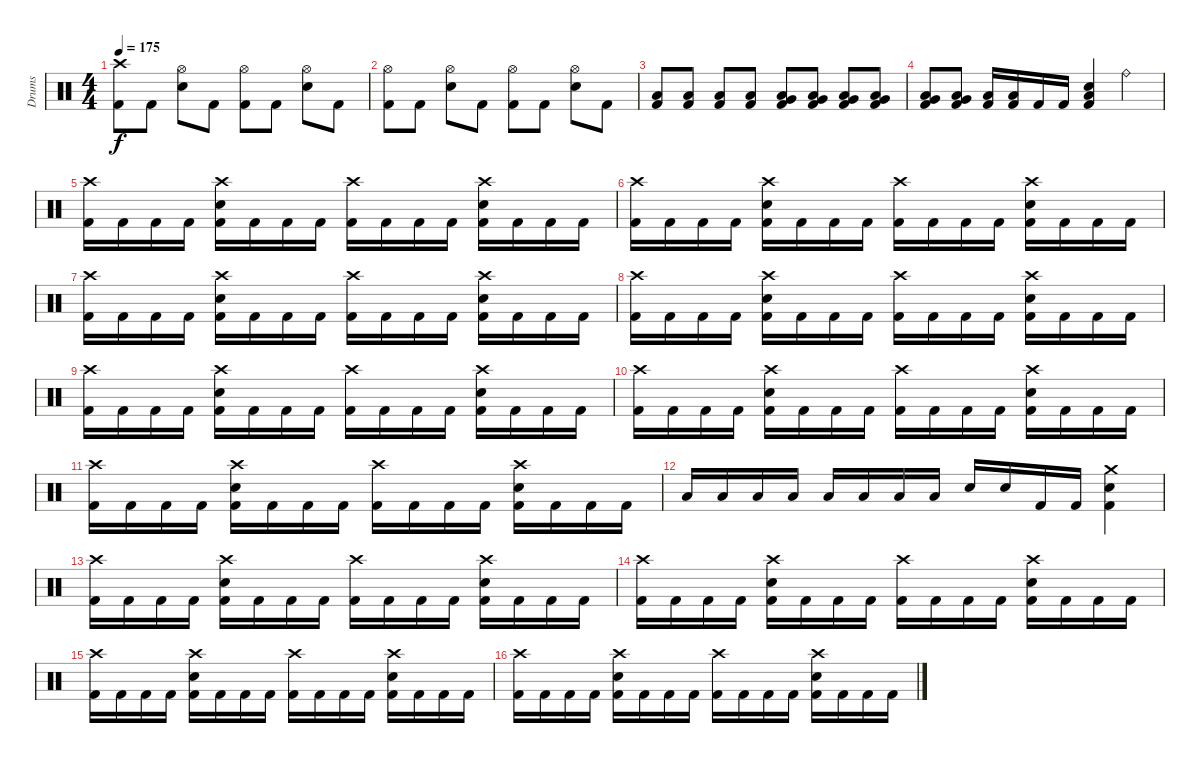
\track ("Drums" "Drums") {instrument percussion}
\staff {score}
\articulation defaults
\ts (4 4)
\tempo 175
\clef neutral
\ks c
("Crash high (hit)" "Kick (hit) 2").8{dy f} "Kick (hit) 2".8 ("Hi-Hat (open)" "Snare (hit) 2").8 "Kick (hit) 2".8 ("Hi-Hat (open)" "Kick (hit) 2").8 "Kick (hit) 2".8 ("Hi-Hat (open)" "Snare (hit) 2").8 "Kick (hit) 2".8 |
("Hi-Hat (open)" "Kick (hit) 2").8 "Kick (hit) 2".8 ("Hi-Hat (open)" "Snare (hit) 2").8 "Kick (hit) 2".8 ("Hi-Hat (open)" "Kick (hit) 2").8 "Kick (hit) 2".8 ("Hi-Hat (open)" "Snare (hit) 2").8 "Kick (hit) 2".8 |
("Low Floor Tom (hit)" "Kick (hit) 2").8 ("Low Floor Tom (hit)" "Kick (hit) 2").8 ("Low Floor Tom (hit)" "Kick (hit) 2").8 ("Low Floor Tom (hit)" "Kick (hit) 2").8 ("Very Low Tom (hit)" "Low Floor Tom (hit)" "Kick (hit) 2").8 ("Very Low Tom (hit)" "Low Floor Tom (hit)" "Kick (hit) 2").8 ("Very Low Tom (hit)" "Low Floor Tom (hit)" "Kick (hit) 2").8 ("Very Low Tom (hit)" "Low Floor Tom (hit)" "Kick (hit) 2").8 |
("Very Low Tom (hit)" "Low Floor Tom (hit)" "Kick (hit) 2").8 ("Very Low Tom (hit)" "Low Floor Tom (hit)" "Kick (hit) 2").8 ("Low Tom (hit)" "Kick (hit) 2").16 ("Low Tom (hit)" "Kick (hit) 2").16 "Kick (hit) 2".16 "Kick (hit) 2".16 ("Kick (hit) 2" "Low Floor Tom (hit)" "Snare (hit) 2").4 "Ride (bell)".4 |
("Crash high (hit)" "Kick (hit) 2").16 "Kick (hit) 2".16 "Kick (hit) 2".16 "Kick (hit) 2".16 ("Crash high (hit)" "Snare (hit) 2" "Kick (hit) 2").16 "Kick (hit) 2".16 "Kick (hit) 2".16 "Kick (hit) 2".16 ("Crash high (hit)" "Kick (hit) 2").16 "Kick (hit) 2".16 "Kick (hit) 2".16 "Kick (hit) 2".16 ("Crash high (hit)" "Snare (hit) 2" "Kick (hit) 2").16 "Kick (hit) 2".16 "Kick (hit) 2".16 "Kick (hit) 2".16 |
("Crash high (hit)" "Kick (hit) 2").16 "Kick (hit) 2".16 "Kick (hit) 2".16 "Kick (hit) 2".16 ("Crash high (hit)" "Snare (hit) 2" "Kick (hit) 2").16 "Kick (hit) 2".16 "Kick (hit) 2".16 "Kick (hit) 2".16 ("Crash high (hit)" "Kick (hit) 2").16 "Kick (hit) 2".16 "Kick (hit) 2".16 "Kick (hit) 2".16 ("Crash high (hit)" "Snare (hit) 2" "Kick (hit) 2").16 "Kick (hit) 2".16 "Kick (hit) 2".16 "Kick (hit) 2".16 |
("Crash high (hit)" "Kick (hit) 2").16 "Kick (hit) 2".16 "Kick (hit) 2".16 "Kick (hit) 2".16 ("Crash high (hit)" "Snare (hit) 2" "Kick (hit) 2").16 "Kick (hit) 2".16 "Kick (hit) 2".16 "Kick (hit) 2".16 ("Crash high (hit)" "Kick (hit) 2").16 "Kick (hit) 2".16 "Kick (hit) 2".16 "Kick (hit) 2".16 ("Crash high (hit)" "Snare (hit) 2" "Kick (hit) 2").16 "Kick (hit) 2".16 "Kick (hit) 2".16 "Kick (hit) 2".16 |
("Crash high (hit)" "Kick (hit) 2").16 "Kick (hit) 2".16 "Kick (hit) 2".16 "Kick (hit) 2".16 ("Crash high (hit)" "Snare (hit) 2" "Kick (hit) 2").16 "Kick (hit) 2".16 "Kick (hit) 2".16 "Kick (hit) 2".16 ("Crash high (hit)" "Kick (hit) 2").16 "Kick (hit) 2".16 "Kick (hit) 2".16 "Kick (hit) 2".16 ("Crash high (hit)" "Snare (hit) 2" "Kick (hit) 2").16 "Kick (hit) 2".16 "Kick (hit) 2".16 "Kick (hit) 2".16 |
("Crash high (hit)" "Kick (hit) 2").16 "Kick (hit) 2".16 "Kick (hit) 2".16 "Kick (hit) 2".16 ("Crash high (hit)" "Snare (hit) 2" "Kick (hit) 2").16 "Kick (hit) 2".16 "Kick (hit) 2".16 "Kick (hit) 2".16 ("Crash high (hit)" "Kick (hit) 2").16 "Kick (hit) 2".16 "Kick (hit) 2".16 "Kick (hit) 2".16 ("Crash high (hit)" "Snare (hit) 2" "Kick (hit) 2").16 "Kick (hit) 2".16 "Kick (hit) 2".16 "Kick (hit) 2".16 |
("Crash high (hit)" "Kick (hit) 2").16 "Kick (hit) 2".16 "Kick (hit) 2".16 "Kick (hit) 2".16 ("Crash high (hit)" "Snare (hit) 2" "Kick (hit) 2").16 "Kick (hit) 2".16 "Kick (hit) 2".16 "Kick (hit) 2".16 ("Crash high (hit)" "Kick (hit) 2").16 "Kick (hit) 2".16 "Kick (hit) 2".16 "Kick (hit) 2".16 ("Crash high (hit)" "Snare (hit) 2" "Kick (hit) 2").16 "Kick (hit) 2".16 "Kick (hit) 2".16 "Kick (hit) 2".16 |
("Crash high (hit)" "Kick (hit) 2").16 "Kick (hit) 2".16 "Kick (hit) 2".16 "Kick (hit) 2".16 ("Crash high (hit)" "Snare (hit) 2" "Kick (hit) 2").16 "Kick (hit) 2".16 "Kick (hit) 2".16 "Kick (hit) 2".16 ("Crash high (hit)" "Kick (hit) 2").16 "Kick (hit) 2".16 "Kick (hit) 2".16 "Kick (hit) 2".16 ("Crash high (hit)" "Snare (hit) 2" "Kick (hit) 2").16 "Kick (hit) 2".16 "Kick (hit) 2".16 "Kick (hit) 2".16 |
"Low Tom (hit)".16 "Low Tom (hit)".16 "Low Tom (hit)".16 "Low Tom (hit)".16 "Low Tom (hit)".16 "Low Tom (hit)".16 "Low Tom (hit)".16 "Low Tom (hit)".16 "Snare (hit) 2".16 "Snare (hit) 2".16 "Kick (hit) 2".16 "Kick (hit) 2".16 ("Crash medium (hit)" "Kick (hit) 2" "Snare (hit) 2").4 |
("Crash high (hit)" "Kick (hit) 2").16 "Kick (hit) 2".16 "Kick (hit) 2".16 "Kick (hit) 2".16 ("Crash high (hit)" "Snare (hit) 2" "Kick (hit) 2").16 "Kick (hit) 2".16 "Kick (hit) 2".16 "Kick (hit) 2".16 ("Crash high (hit)" "Kick (hit) 2").16 "Kick (hit) 2".16 "Kick (hit) 2".16 "Kick (hit) 2".16 ("Crash high (hit)" "Snare (hit) 2" "Kick (hit) 2").16 "Kick (hit) 2".16 "Kick (hit) 2".16 "Kick (hit) 2".16 |
("Crash high (hit)" "Kick (hit) 2").16 "Kick (hit) 2".16 "Kick (hit) 2".16 "Kick (hit) 2".16 ("Crash high (hit)" "Snare (hit) 2" "Kick (hit) 2").16 "Kick (hit) 2".16 "Kick (hit) 2".16 "Kick (hit) 2".16 ("Crash high (hit)" "Kick (hit) 2").16 "Kick (hit) 2".16 "Kick (hit) 2".16 "Kick (hit) 2".16 ("Crash high (hit)" "Snare (hit) 2" "Kick (hit) 2").16 "Kick (hit) 2".16 "Kick (hit) 2".16 "Kick (hit) 2".16 |
("Crash high (hit)" "Kick (hit) 2").16 "Kick (hit) 2".16 "Kick (hit) 2".16 "Kick (hit) 2".16 ("Crash high (hit)" "Snare (hit) 2" "Kick (hit) 2").16 "Kick (hit) 2".16 "Kick (hit) 2".16 "Kick (hit) 2".16 ("Crash high (hit)" "Kick (hit) 2").16 "Kick (hit) 2".16 "Kick (hit) 2".16 "Kick (hit) 2".16 ("Crash high (hit)" "Snare (hit) 2" "Kick (hit) 2").16 "Kick (hit) 2".16 "Kick (hit) 2".16 "Kick (hit) 2".16 |
("Crash high (hit)" "Kick (hit) 2").16 "Kick (hit) 2".16 "Kick (hit) 2".16 "Kick (hit) 2".16 ("Crash high (hit)" "Snare (hit) 2" "Kick (hit) 2").16 "Kick (hit) 2".16 "Kick (hit) 2".16 "Kick (hit) 2".16 ("Crash high (hit)" "Kick (hit) 2").16 "Kick (hit) 2".16 "Kick (hit) 2".16 "Kick (hit) 2".16 ("Crash high (hit)" "Snare (hit) 2" "Kick (hit) 2").16 "Kick (hit) 2".16 "Kick (hit) 2".16 "Kick (hit) 2".16
